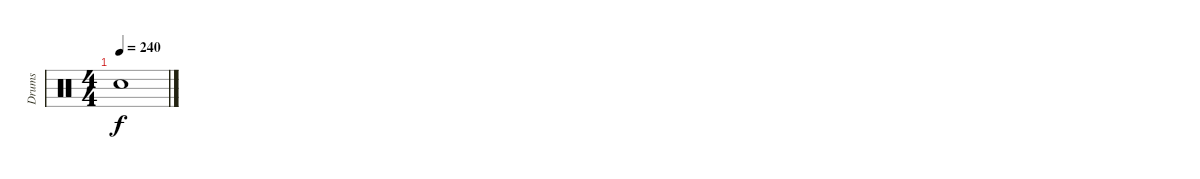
\track ("Drums " "Drums ") {instrument percussion}
\staff {score}
\articulation defaults
\ts (4 4)
\tempo 240
\clef neutral
\ks c "Snare (hit)"{t}.1{dy f}
